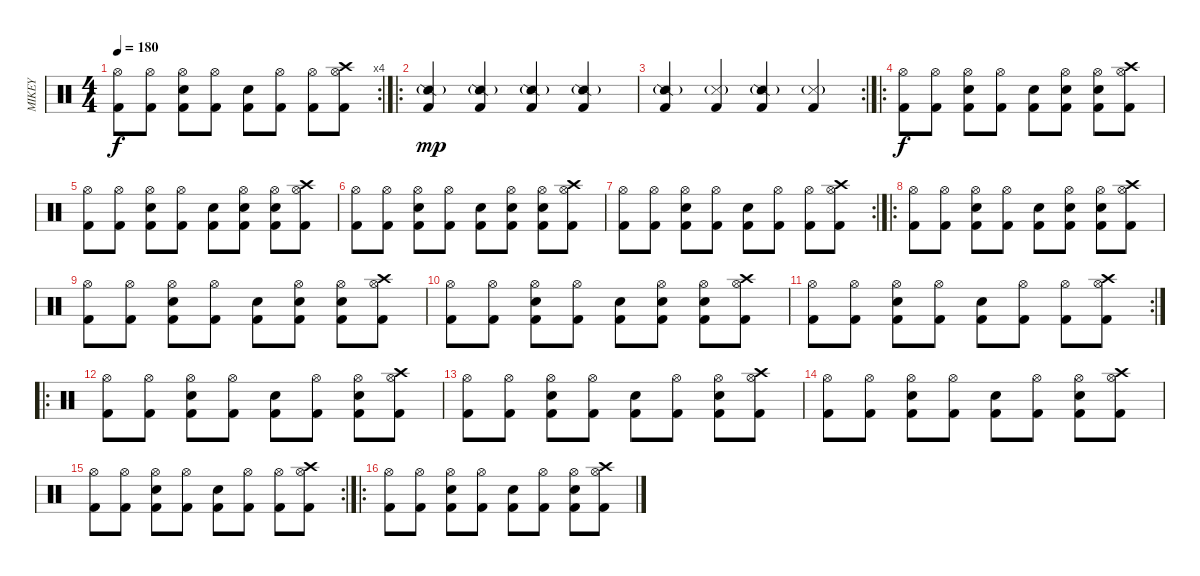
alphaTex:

\track ("MIKEY" "MIKEY") {instrument percussion}
\staff {score}
\articulation defaults
\rc 4
\ts (4 4)
\tempo 180
\clef neutral
\ks c
("Hi-Hat (open)" "Kick (hit) 2").8{dy f} ("Hi-Hat (open)" "Kick (hit) 2").8 ("Snare (hit) 2" "Hi-Hat (open)" "Kick (hit) 2").8 ("Hi-Hat (open)" "Kick (hit) 2").8 ("Snare (hit) 2" "Kick (hit) 2").8 ("Hi-Hat (open)" "Kick (hit) 2").8 ("Hi-Hat (open)" "Kick (hit) 2").8 ("Crash high (hit)" "Hi-Hat (open)" "Kick (hit) 2").8 |
\ro
("Kick (hit) 2" "Snare (side stick) 2"{g}).4{dy mp} ("Kick (hit) 2" "Snare (side stick) 2"{g}).4 ("Kick (hit) 2" "Snare (side stick) 2"{g}).4 ("Kick (hit) 2" "Snare (side stick) 2"{g}).4 |
\rc 2
("Kick (hit) 2" "Snare (side stick) 2"{g}).4 ("Kick (hit) 2" "Snare (side stick) 3"{g}).4 ("Kick (hit) 2" "Snare (side stick) 2"{g}).4 ("Kick (hit) 2" "Snare (side stick) 3"{g}).4 |
\ro
("Hi-Hat (open)" "Kick (hit) 2").8{dy f} ("Hi-Hat (open)" "Kick (hit) 2").8 ("Snare (hit) 2" "Hi-Hat (open)" "Kick (hit) 2").8 ("Hi-Hat (open)" "Kick (hit) 2").8 ("Snare (hit) 2" "Kick (hit) 2").8 ("Snare (hit) 2" "Hi-Hat (open)" "Kick (hit) 2").8 ("Snare (hit) 2" "Hi-Hat (open)" "Kick (hit) 2").8 ("Crash high (hit)" "Hi-Hat (open)" "Kick (hit) 2").8 |
("Hi-Hat (open)" "Kick (hit) 2").8 ("Hi-Hat (open)" "Kick (hit) 2").8 ("Snare (hit) 2" "Hi-Hat (open)" "Kick (hit) 2").8 ("Hi-Hat (open)" "Kick (hit) 2").8 ("Snare (hit) 2" "Kick (hit) 2").8 ("Snare (hit) 2" "Hi-Hat (open)" "Kick (hit) 2").8 ("Snare (hit) 2" "Hi-Hat (open)" "Kick (hit) 2").8 ("Crash high (hit)" "Hi-Hat (open)" "Kick (hit) 2").8 |
("Hi-Hat (open)" "Kick (hit) 2").8 ("Hi-Hat (open)" "Kick (hit) 2").8 ("Snare (hit) 2" "Hi-Hat (open)" "Kick (hit) 2").8 ("Hi-Hat (open)" "Kick (hit) 2").8 ("Snare (hit) 2" "Kick (hit) 2").8 ("Snare (hit) 2" "Hi-Hat (open)" "Kick (hit) 2").8 ("Snare (hit) 2" "Hi-Hat (open)" "Kick (hit) 2").8 ("Crash high (hit)" "Hi-Hat (open)" "Kick (hit) 2").8 |
\rc 2
("Hi-Hat (open)" "Kick (hit) 2").8 ("Hi-Hat (open)" "Kick (hit) 2").8 ("Snare (hit) 2" "Hi-Hat (open)" "Kick (hit) 2").8 ("Hi-Hat (open)" "Kick (hit) 2").8 ("Snare (hit) 2" "Kick (hit) 2").8 ("Hi-Hat (open)" "Kick (hit) 2").8 ("Hi-Hat (open)" "Kick (hit) 2").8 ("Crash high (hit)" "Hi-Hat (open)" "Kick (hit) 2").8 |
\ro
("Hi-Hat (open)" "Kick (hit) 2").8 ("Hi-Hat (open)" "Kick (hit) 2").8 ("Snare (hit) 2" "Hi-Hat (open)" "Kick (hit) 2").8 ("Hi-Hat (open)" "Kick (hit) 2").8 ("Snare (hit) 2" "Kick (hit) 2").8 ("Snare (hit) 2" "Hi-Hat (open)" "Kick (hit) 2").8 ("Snare (hit) 2" "Hi-Hat (open)" "Kick (hit) 2").8 ("Crash high (hit)" "Hi-Hat (open)" "Kick (hit) 2").8 |
("Hi-Hat (open)" "Kick (hit) 2").8 ("Hi-Hat (open)" "Kick (hit) 2").8 ("Snare (hit) 2" "Hi-Hat (open)" "Kick (hit) 2").8 ("Hi-Hat (open)" "Kick (hit) 2").8 ("Snare (hit) 2" "Kick (hit) 2").8 ("Snare (hit) 2" "Hi-Hat (open)" "Kick (hit) 2").8 ("Snare (hit) 2" "Hi-Hat (open)" "Kick (hit) 2").8 ("Crash high (hit)" "Hi-Hat (open)" "Kick (hit) 2").8 |
("Hi-Hat (open)" "Kick (hit) 2").8 ("Hi-Hat (open)" "Kick (hit) 2").8 ("Snare (hit) 2" "Hi-Hat (open)" "Kick (hit) 2").8 ("Hi-Hat (open)" "Kick (hit) 2").8 ("Snare (hit) 2" "Kick (hit) 2").8 ("Snare (hit) 2" "Hi-Hat (open)" "Kick (hit) 2").8 ("Snare (hit) 2" "Hi-Hat (open)" "Kick (hit) 2").8 ("Crash high (hit)" "Hi-Hat (open)" "Kick (hit) 2").8 |
\rc 2
("Hi-Hat (open)" "Kick (hit) 2").8 ("Hi-Hat (open)" "Kick (hit) 2").8 ("Snare (hit) 2" "Hi-Hat (open)" "Kick (hit) 2").8 ("Hi-Hat (open)" "Kick (hit) 2").8 ("Snare (hit) 2" "Kick (hit) 2").8 ("Hi-Hat (open)" "Kick (hit) 2").8 ("Hi-Hat (open)" "Kick (hit) 2").8 ("Crash high (hit)" "Hi-Hat (open)" "Kick (hit) 2").8 |
\ro
("Hi-Hat (open)" "Kick (hit) 2").8 ("Hi-Hat (open)" "Kick (hit) 2").8 ("Snare (hit) 2" "Hi-Hat (open)" "Kick (hit) 2").8 ("Hi-Hat (open)" "Kick (hit) 2").8 ("Snare (hit) 2" "Kick (hit) 2").8 ("Hi-Hat (open)" "Kick (hit) 2").8 ("Snare (hit) 2" "Hi-Hat (open)" "Kick (hit) 2").8 ("Crash high (hit)" "Hi-Hat (open)" "Kick (hit) 2").8 |
("Hi-Hat (open)" "Kick (hit) 2").8 ("Hi-Hat (open)" "Kick (hit) 2").8 ("Snare (hit) 2" "Hi-Hat (open)" "Kick (hit) 2").8 ("Hi-Hat (open)" "Kick (hit) 2").8 ("Snare (hit) 2" "Kick (hit) 2").8 ("Hi-Hat (open)" "Kick (hit) 2").8 ("Snare (hit) 2" "Hi-Hat (open)" "Kick (hit) 2").8 ("Crash high (hit)" "Hi-Hat (open)" "Kick (hit) 2").8 |
("Hi-Hat (open)" "Kick (hit) 2").8 ("Hi-Hat (open)" "Kick (hit) 2").8 ("Snare (hit) 2" "Hi-Hat (open)" "Kick (hit) 2").8 ("Hi-Hat (open)" "Kick (hit) 2").8 ("Snare (hit) 2" "Kick (hit) 2").8 ("Hi-Hat (open)" "Kick (hit) 2").8 ("Snare (hit) 2" "Hi-Hat (open)" "Kick (hit) 2").8 ("Crash high (hit)" "Hi-Hat (open)" "Kick (hit) 2").8 |
\rc 2
("Hi-Hat (open)" "Kick (hit) 2").8 ("Hi-Hat (open)" "Kick (hit) 2").8 ("Snare (hit) 2" "Hi-Hat (open)" "Kick (hit) 2").8 ("Hi-Hat (open)" "Kick (hit) 2").8 ("Snare (hit) 2" "Kick (hit) 2").8 ("Hi-Hat (open)" "Kick (hit) 2").8 ("Hi-Hat (open)" "Kick (hit) 2").8 ("Crash high (hit)" "Hi-Hat (open)" "Kick (hit) 2").8 |
\ro
("Hi-Hat (open)" "Kick (hit) 2").8 ("Hi-Hat (open)" "Kick (hit) 2").8 ("Snare (hit) 2" "Hi-Hat (open)" "Kick (hit) 2").8 ("Hi-Hat (open)" "Kick (hit) 2").8 ("Snare (hit) 2" "Kick (hit) 2").8 ("Hi-Hat (open)" "Kick (hit) 2").8 ("Snare (hit) 2" "Hi-Hat (open)" "Kick (hit) 2").8 ("Crash high (hit)" "Hi-Hat (open)" "Kick (hit) 2").8
